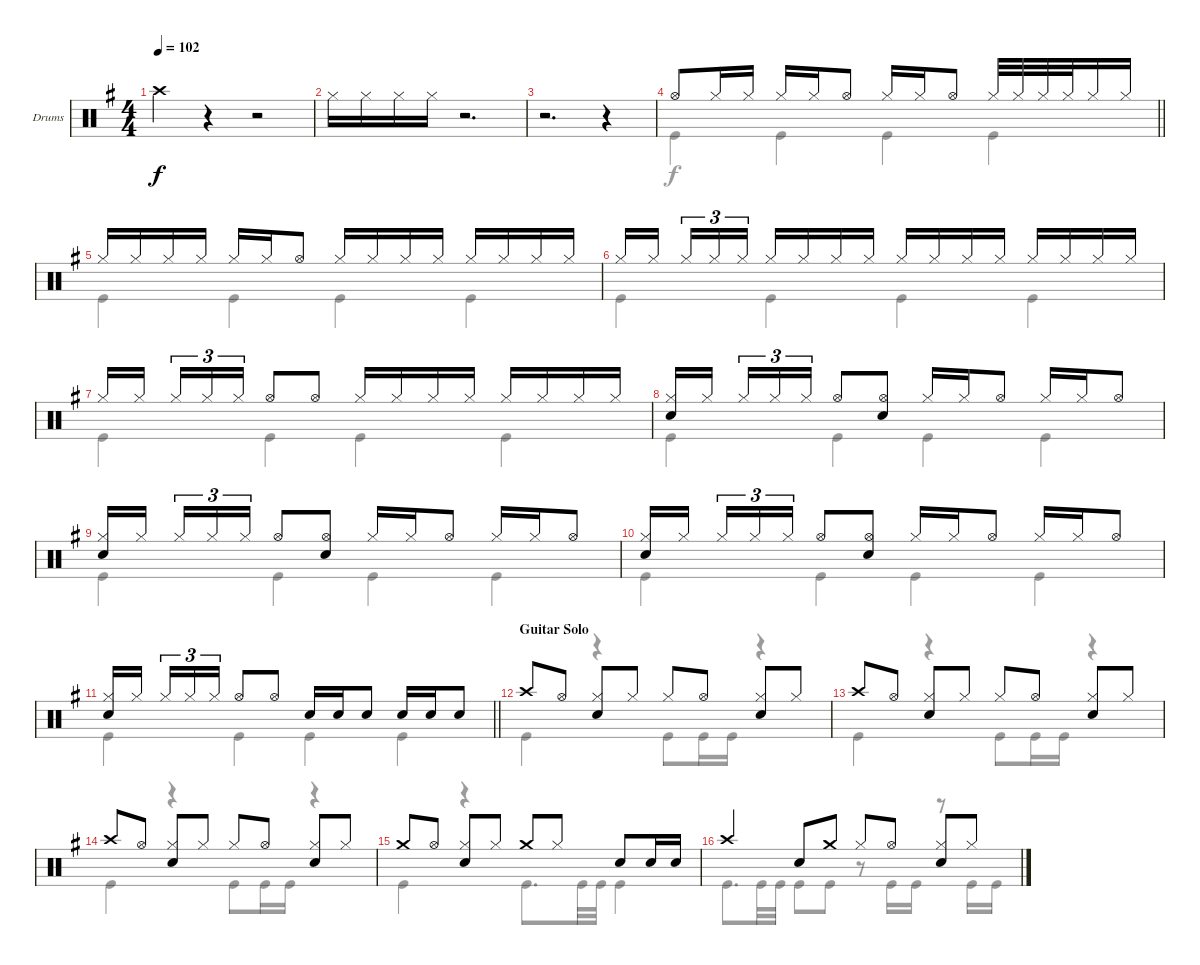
\bracketExtendMode groupsimilarinstruments
\firstSystemTrackNameOrientation horizontal
\otherSystemsTrackNameOrientation horizontal
\track ("Drumkit" "Drums") {instrument percussion}
\staff {score}
\articulation defaults
\voice
\ts (4 4)
\tempo 102
\clef neutral
\ks g "Crash high (hit)".4{dy f}
r.4 r.2 |
"Hi-Hat (closed)".16 "Hi-Hat (closed)".16 "Hi-Hat (closed)".16 "Hi-Hat (closed)".16 r.2{d} |
r.2{d} r.4 |
\barLineRight lightlight "Hi-Hat (open)".8 "Hi-Hat (closed)".16 "Hi-Hat (closed)".16 "Hi-Hat (closed)".16 "Hi-Hat (closed)".16 "Hi-Hat (open)".8 "Hi-Hat (closed)".16 "Hi-Hat (closed)".16 "Hi-Hat (open)".8 "Hi-Hat (closed)".32 "Hi-Hat (closed)".32 "Hi-Hat (closed)".32 "Hi-Hat (closed)".32 "Hi-Hat (closed)".16 "Hi-Hat (closed)".16
|
"Hi-Hat (closed)".16 "Hi-Hat (closed)".16 "Hi-Hat (closed)".16 "Hi-Hat (closed)".16 "Hi-Hat (closed)".16 "Hi-Hat (closed)".16 "Hi-Hat (open)".8 "Hi-Hat (closed)".16 "Hi-Hat (closed)".16 "Hi-Hat (closed)".16 "Hi-Hat (closed)".16 "Hi-Hat (closed)".16 "Hi-Hat (closed)".16 "Hi-Hat (closed)".16 "Hi-Hat (closed)".16 |
"Hi-Hat (closed)".16 "Hi-Hat (closed)".16 "Hi-Hat (closed)".16{tu (3 2)} "Hi-Hat (closed)".16{tu (3 2)} "Hi-Hat (closed)".16{tu (3 2)} "Hi-Hat (closed)".16 "Hi-Hat (closed)".16 "Hi-Hat (closed)".16 "Hi-Hat (closed)".16 "Hi-Hat (closed)".16 "Hi-Hat (closed)".16 "Hi-Hat (closed)".16 "Hi-Hat (closed)".16 "Hi-Hat (closed)".16 "Hi-Hat (closed)".16 "Hi-Hat (closed)".16 "Hi-Hat (closed)".16 |
"Hi-Hat (closed)".16 "Hi-Hat (closed)".16 "Hi-Hat (closed)".16{tu (3 2)} "Hi-Hat (closed)".16{tu (3 2)} "Hi-Hat (closed)".16{tu (3 2)} "Hi-Hat (open)".8 "Hi-Hat (open)".8 "Hi-Hat (closed)".16 "Hi-Hat (closed)".16 "Hi-Hat (closed)".16 "Hi-Hat (closed)".16 "Hi-Hat (closed)".16 "Hi-Hat (closed)".16 "Hi-Hat (closed)".16 "Hi-Hat (closed)".16 |
("Hi-Hat (closed)" "Snare (hit) 2").16 "Hi-Hat (closed)".16 "Hi-Hat (closed)".16{tu (3 2)} "Hi-Hat (closed)".16{tu (3 2)} "Hi-Hat (closed)".16{tu (3 2)} "Hi-Hat (open)".8 ("Hi-Hat (open)" "Snare (hit) 2").8 "Hi-Hat (closed)".16 "Hi-Hat (closed)".16 "Hi-Hat (open)".8 "Hi-Hat (closed)".16 "Hi-Hat (closed)".16 "Hi-Hat (open)".8 |
("Hi-Hat (closed)" "Snare (hit) 2").16 "Hi-Hat (closed)".16 "Hi-Hat (closed)".16{tu (3 2)} "Hi-Hat (closed)".16{tu (3 2)} "Hi-Hat (closed)".16{tu (3 2)} "Hi-Hat (open)".8 ("Hi-Hat (open)" "Snare (hit) 2").8 "Hi-Hat (closed)".16 "Hi-Hat (closed)".16 "Hi-Hat (open)".8 "Hi-Hat (closed)".16 "Hi-Hat (closed)".16 "Hi-Hat (open)".8 |
("Hi-Hat (closed)" "Snare (hit) 2").16 "Hi-Hat (closed)".16 "Hi-Hat (closed)".16{tu (3 2)} "Hi-Hat (closed)".16{tu (3 2)} "Hi-Hat (closed)".16{tu (3 2)} "Hi-Hat (open)".8 ("Hi-Hat (open)" "Snare (hit) 2").8 "Hi-Hat (closed)".16 "Hi-Hat (closed)".16 "Hi-Hat (open)".8 "Hi-Hat (closed)".16 "Hi-Hat (closed)".16 "Hi-Hat (open)".8 |
\barLineRight lightlight
("Hi-Hat (closed)" "Snare (hit) 2").16 "Hi-Hat (closed)".16 "Hi-Hat (closed)".16{tu (3 2)} "Hi-Hat (closed)".16{tu (3 2)} "Hi-Hat (closed)".16{tu (3 2)} "Hi-Hat (open)".8 "Hi-Hat (open)".8 "Snare (hit) 2".16 "Snare (hit) 2".16 "Snare (hit) 2".8 "Snare (hit) 2".16 "Snare (hit) 2".16 "Snare (hit) 2".8 |
\section ("" "Guitar Solo")
"Crash high (hit)".8 "Hi-Hat (open)".8 ("Hi-Hat (closed)" "Snare (hit) 2").8 "Hi-Hat (closed)".8 "Hi-Hat (closed)".8 "Hi-Hat (open)".8 ("Hi-Hat (closed)" "Snare (hit) 2").8 "Hi-Hat (closed)".8 |
"Crash high (hit)".8 "Hi-Hat (open)".8 ("Hi-Hat (closed)" "Snare (hit) 2").8 "Hi-Hat (closed)".8 "Hi-Hat (closed)".8 "Hi-Hat (open)".8 ("Hi-Hat (closed)" "Snare (hit) 2").8 "Hi-Hat (closed)".8 |
"Crash high (hit)".8 "Hi-Hat (open)".8 ("Hi-Hat (closed)" "Snare (hit) 2").8 "Hi-Hat (closed)".8 "Hi-Hat (closed)".8 "Hi-Hat (open)".8 ("Hi-Hat (closed)" "Snare (hit) 2").8 "Hi-Hat (closed)".8 |
"Crash medium (hit)".8 "Hi-Hat (open)".8 ("Hi-Hat (closed)" "Snare (hit) 2").8 "Hi-Hat (closed)".8 "Crash medium (hit)".8 "Hi-Hat (closed)".8 "Snare (hit) 2".8 "Snare (hit) 2".16 "Snare (hit) 2".16 |
"Crash high (hit)".4 "Snare (hit) 2".8 "Crash medium (hit)".8 "Hi-Hat (closed)".8 "Hi-Hat (open)".8 ("Hi-Hat (closed)" "Snare (hit) 2").8 "Hi-Hat (closed)".8
\voice
\clef neutral
\ottava regular
\simile none
\ks g
|
|
|
\barLineRight lightlight "Kick (hit)".4 "Kick (hit)".4 "Kick (hit)".4 "Kick (hit)".4
|
"Kick (hit)".4 "Kick (hit)".4 "Kick (hit)".4 "Kick (hit)".4 |
"Kick (hit)".4 "Kick (hit)".4 "Kick (hit)".4 "Kick (hit)".4 |
"Kick (hit)".4 "Kick (hit)".4 "Kick (hit)".4 "Kick (hit)".4 |
"Kick (hit)".4 "Kick (hit)".4 "Kick (hit)".4 "Kick (hit)".4 |
"Kick (hit)".4 "Kick (hit)".4 "Kick (hit)".4 "Kick (hit)".4 |
"Kick (hit)".4 "Kick (hit)".4 "Kick (hit)".4 "Kick (hit)".4 |
\barLineRight lightlight "Kick (hit)".4 "Kick (hit)".4 "Kick (hit)".4 "Kick (hit)".4
|
"Kick (hit)".4 r.4 "Kick (hit)".8 "Kick (hit)".16 "Kick (hit)".16 r.4 |
"Kick (hit)".4 r.4 "Kick (hit)".8 "Kick (hit)".16 "Kick (hit)".16 r.4 |
"Kick (hit)".4 r.4 "Kick (hit)".8 "Kick (hit)".16 "Kick (hit)".16 r.4 |
"Kick (hit)".4 r.4 "Kick (hit)".8{d} "Kick (hit)".32 "Kick (hit)".32 "Kick (hit)".4 |
"Kick (hit)".8{d} "Kick (hit)".32 "Kick (hit)".32 "Kick (hit)".8 "Kick (hit)".8 r.8 "Kick (hit)".16 "Kick (hit)".16 r.8 "Kick (hit)".16 "Kick (hit)".16
